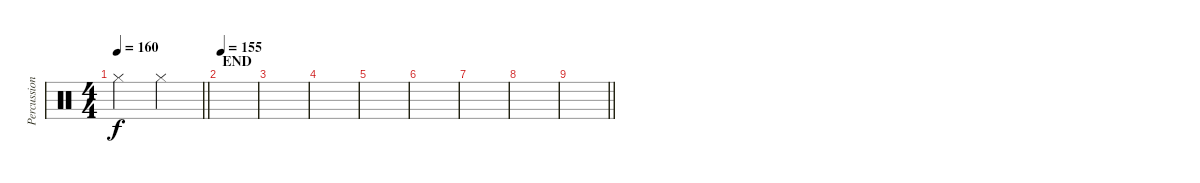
\track ("Percussioni" "Percussion") {instrument percussion}
\staff {score}
\articulation defaults
\ts (4 4)
\tempo 160
\clef neutral
\barLineRight lightlight
\ks c "Hi-Hat (closed)".2{dy f} "Hi-Hat (closed)".2
|
\section ("" "END")
\tempo 155
|
|
|
|
|
|
|
\barLineRight lightlight
